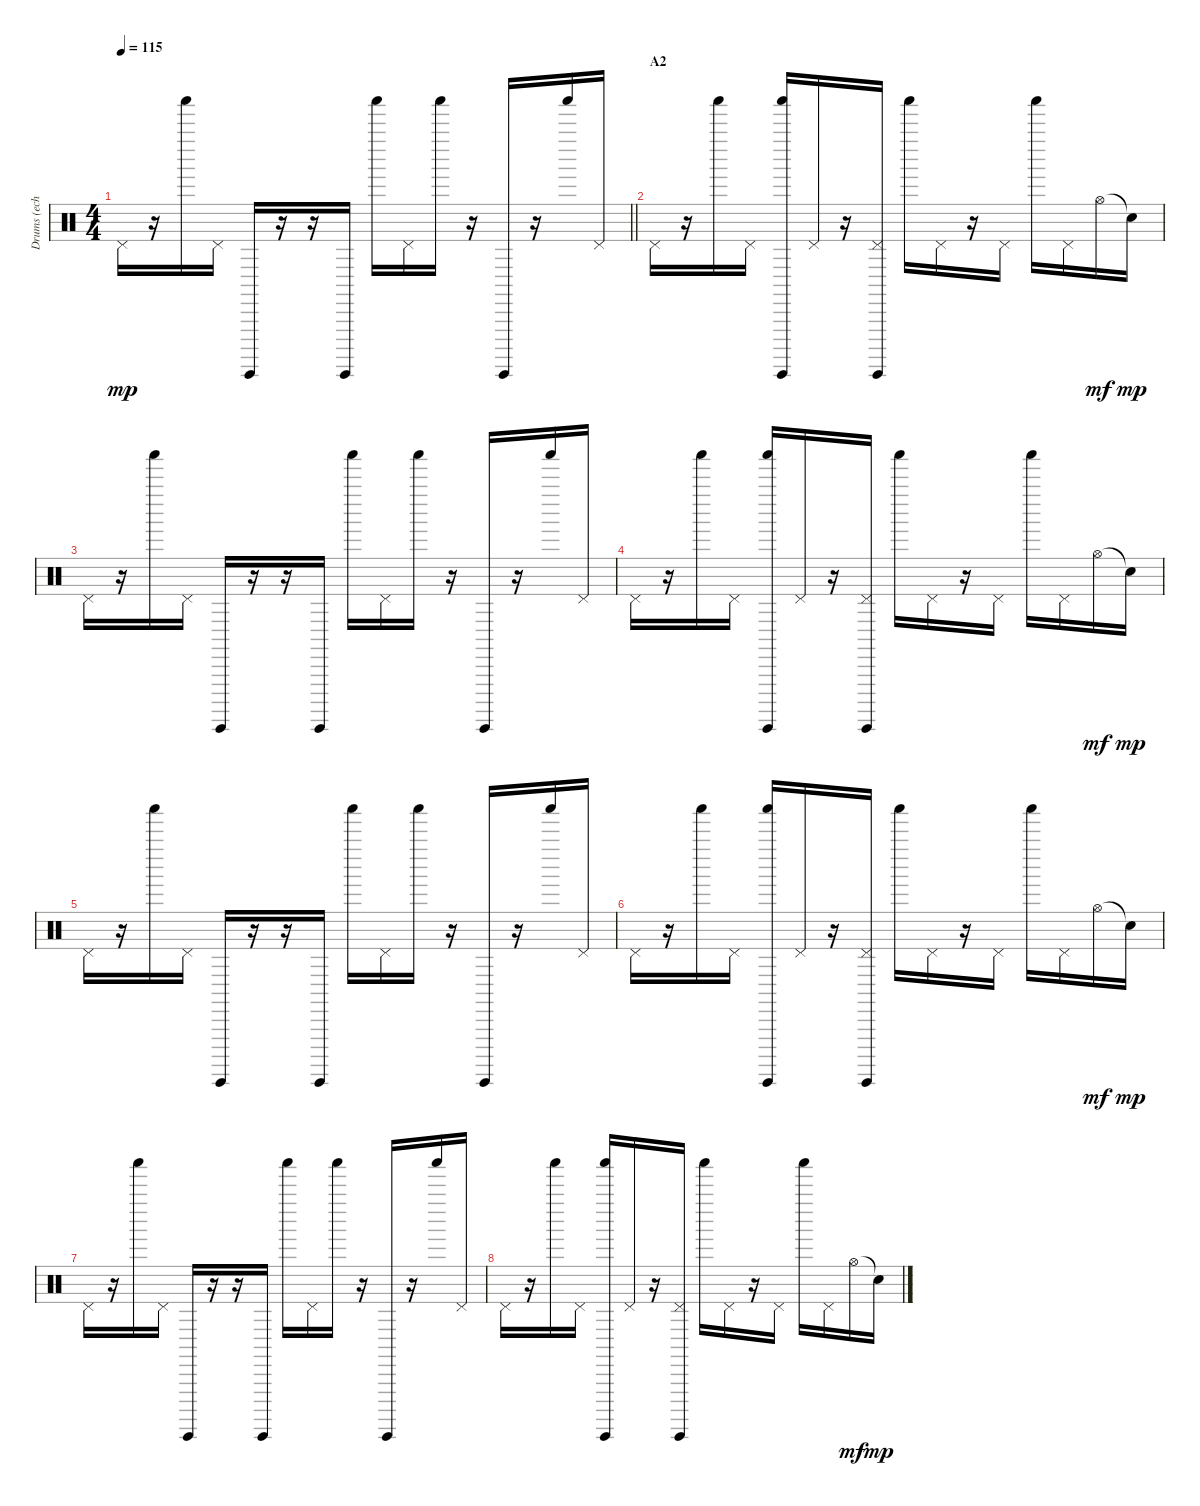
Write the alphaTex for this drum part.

\track ("Drums (echo)" "Drums (ech") {instrument percussion}
\staff {score}
\articulation defaults
\ts (4 4)
\tempo 115
\clef neutral
\barLineRight lightlight
\ks c "Pedal Hi-Hat (hit)".16{dy mp balance 6}
r.16 "Shaker (hit)".16 "Pedal Hi-Hat (hit)".16 "Guiro (hit)".16 r.16 r.16 "Guiro (hit)".16 "Shaker (hit)".16 "Pedal Hi-Hat (hit)".16 "Shaker (hit)".16 r.16 "Guiro (hit)".16 r.16 "Shaker (hit)".16 "Pedal Hi-Hat (hit)".16 |
\section ("" "A2")
"Pedal Hi-Hat (hit)".16 r.16 "Shaker (hit)".16 "Pedal Hi-Hat (hit)".16 ("Shaker (hit)" "Guiro (hit)").16 "Pedal Hi-Hat (hit)".16 r.16 ("Pedal Hi-Hat (hit)" "Guiro (hit)").16 "Shaker (hit)".16 "Pedal Hi-Hat (hit)".16 r.16 "Pedal Hi-Hat (hit)".16 "Shaker (hit)".16 "Pedal Hi-Hat (hit)".16 "Hi-Hat (open)".16{dy mf balance 11} "Snare (hit)"{t}.16{dy mp} |
"Pedal Hi-Hat (hit)".16{balance 6} r.16 "Shaker (hit)".16 "Pedal Hi-Hat (hit)".16 "Guiro (hit)".16 r.16 r.16 "Guiro (hit)".16 "Shaker (hit)".16 "Pedal Hi-Hat (hit)".16 "Shaker (hit)".16 r.16 "Guiro (hit)".16 r.16 "Shaker (hit)".16 "Pedal Hi-Hat (hit)".16 |
"Pedal Hi-Hat (hit)".16 r.16 "Shaker (hit)".16 "Pedal Hi-Hat (hit)".16 ("Shaker (hit)" "Guiro (hit)").16 "Pedal Hi-Hat (hit)".16 r.16 ("Pedal Hi-Hat (hit)" "Guiro (hit)").16 "Shaker (hit)".16 "Pedal Hi-Hat (hit)".16 r.16 "Pedal Hi-Hat (hit)".16 "Shaker (hit)".16 "Pedal Hi-Hat (hit)".16 "Hi-Hat (open)".16{dy mf balance 11} "Snare (hit)"{t}.16{dy mp} |
"Pedal Hi-Hat (hit)".16{balance 6} r.16 "Shaker (hit)".16 "Pedal Hi-Hat (hit)".16 "Guiro (hit)".16 r.16 r.16 "Guiro (hit)".16 "Shaker (hit)".16 "Pedal Hi-Hat (hit)".16 "Shaker (hit)".16 r.16 "Guiro (hit)".16 r.16 "Shaker (hit)".16 "Pedal Hi-Hat (hit)".16 |
"Pedal Hi-Hat (hit)".16 r.16 "Shaker (hit)".16 "Pedal Hi-Hat (hit)".16 ("Shaker (hit)" "Guiro (hit)").16 "Pedal Hi-Hat (hit)".16 r.16 ("Pedal Hi-Hat (hit)" "Guiro (hit)").16 "Shaker (hit)".16 "Pedal Hi-Hat (hit)".16 r.16 "Pedal Hi-Hat (hit)".16 "Shaker (hit)".16 "Pedal Hi-Hat (hit)".16 "Hi-Hat (open)".16{dy mf balance 11} "Snare (hit)"{t}.16{dy mp} |
"Pedal Hi-Hat (hit)".16{balance 6} r.16 "Shaker (hit)".16 "Pedal Hi-Hat (hit)".16 "Guiro (hit)".16 r.16 r.16 "Guiro (hit)".16 "Shaker (hit)".16 "Pedal Hi-Hat (hit)".16 "Shaker (hit)".16 r.16 "Guiro (hit)".16 r.16 "Shaker (hit)".16 "Pedal Hi-Hat (hit)".16 |
"Pedal Hi-Hat (hit)".16 r.16 "Shaker (hit)".16 "Pedal Hi-Hat (hit)".16 ("Shaker (hit)" "Guiro (hit)").16 "Pedal Hi-Hat (hit)".16 r.16 ("Pedal Hi-Hat (hit)" "Guiro (hit)").16 "Shaker (hit)".16 "Pedal Hi-Hat (hit)".16 r.16 "Pedal Hi-Hat (hit)".16 "Shaker (hit)".16 "Pedal Hi-Hat (hit)".16 "Hi-Hat (open)".16{dy mf balance 11} "Snare (hit)"{t}.16{dy mp}
